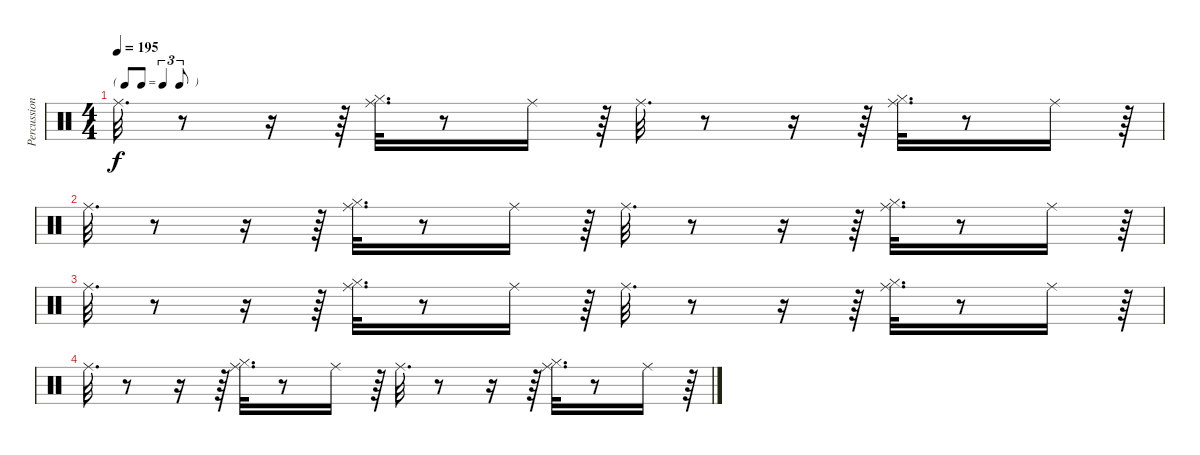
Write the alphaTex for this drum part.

\track ("Percussion" "Percussion") {instrument percussion}
\staff {score}
\articulation defaults
\ts (4 4)
\tf triplet8th
\tempo 195
\clef neutral
\ks c "Ride (middle)".32{d dy f}
r.8 r.16 r.64 ("Hi-Hat (closed)" "Ride (middle)").32{d} r.8 "Ride (middle)".16 r.64 "Ride (middle)".32{d} r.8 r.16 r.64 ("Hi-Hat (closed)" "Ride (middle)").32{d} r.8 "Ride (middle)".16 r.64 |
"Ride (middle)".32{d} r.8 r.16 r.64 ("Hi-Hat (closed)" "Ride (middle)").32{d} r.8 "Ride (middle)".16 r.64 "Ride (middle)".32{d} r.8 r.16 r.64 ("Hi-Hat (closed)" "Ride (middle)").32{d} r.8 "Ride (middle)".16 r.64 |
"Ride (middle)".32{d} r.8 r.16 r.64 ("Hi-Hat (closed)" "Ride (middle)").32{d} r.8 "Ride (middle)".16 r.64 "Ride (middle)".32{d} r.8 r.16 r.64 ("Hi-Hat (closed)" "Ride (middle)").32{d} r.8 "Ride (middle)".16 r.64 |
"Ride (middle)".32{d} r.8 r.16 r.64 ("Hi-Hat (closed)" "Ride (middle)").32{d} r.8 "Ride (middle)".16 r.64 "Ride (middle)".32{d} r.8 r.16 r.64 ("Hi-Hat (closed)" "Ride (middle)").32{d} r.8 "Ride (middle)".16 r.64
